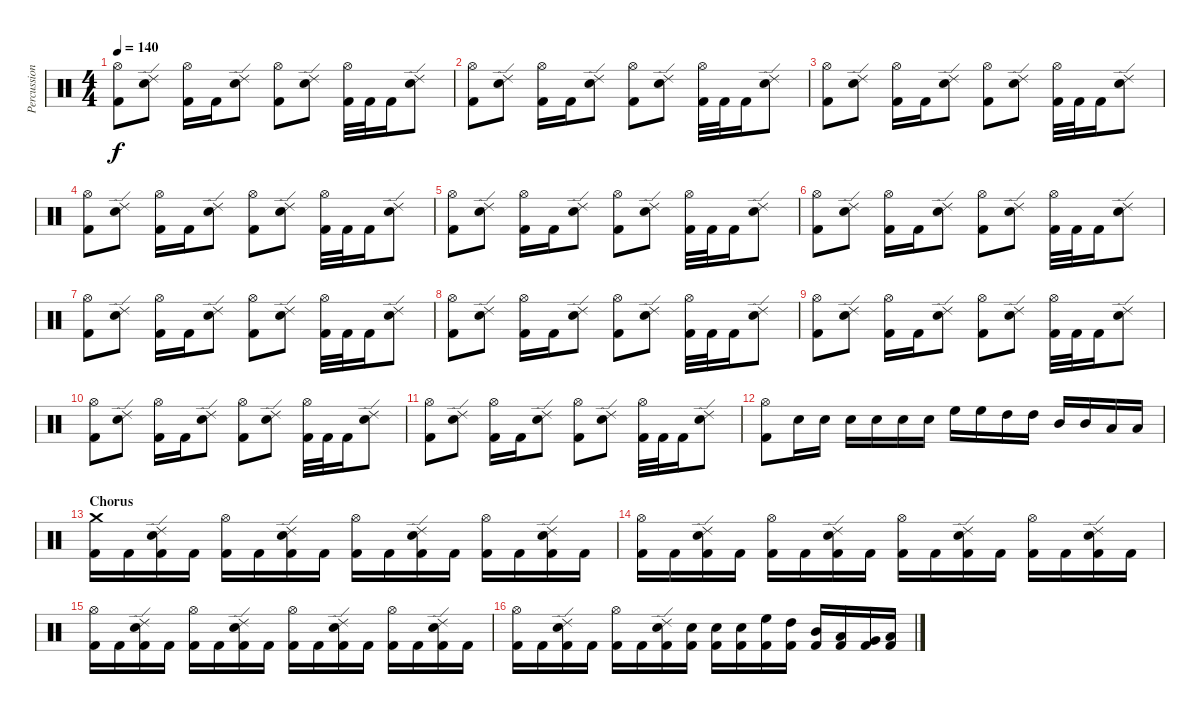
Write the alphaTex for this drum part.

\track ("Percussion" "Percussion") {instrument percussion}
\staff {score}
\articulation defaults
\ts (4 4)
\tempo 140
\clef neutral
\ks c
("Hi-Hat (open)" "Kick (hit) 2").8{dy f} ("Ride (edge) 2" "Electric Snare (hit)").8 ("Hi-Hat (open)" "Kick (hit) 2").16 "Kick (hit) 2".16 ("Ride (edge) 2" "Electric Snare (hit)").8 ("Hi-Hat (open)" "Kick (hit) 2").8 ("Ride (edge) 2" "Electric Snare (hit)").8 ("Hi-Hat (open)" "Kick (hit) 2").32 "Kick (hit) 2".32 "Kick (hit) 2".16 ("Ride (edge) 2" "Electric Snare (hit)").8 |
("Hi-Hat (open)" "Kick (hit) 2").8 ("Ride (edge) 2" "Electric Snare (hit)").8 ("Hi-Hat (open)" "Kick (hit) 2").16 "Kick (hit) 2".16 ("Ride (edge) 2" "Electric Snare (hit)").8 ("Hi-Hat (open)" "Kick (hit) 2").8 ("Ride (edge) 2" "Electric Snare (hit)").8 ("Hi-Hat (open)" "Kick (hit) 2").32 "Kick (hit) 2".32 "Kick (hit) 2".16 ("Ride (edge) 2" "Electric Snare (hit)").8 |
("Hi-Hat (open)" "Kick (hit) 2").8 ("Ride (edge) 2" "Electric Snare (hit)").8 ("Hi-Hat (open)" "Kick (hit) 2").16 "Kick (hit) 2".16 ("Ride (edge) 2" "Electric Snare (hit)").8 ("Hi-Hat (open)" "Kick (hit) 2").8 ("Ride (edge) 2" "Electric Snare (hit)").8 ("Hi-Hat (open)" "Kick (hit) 2").32 "Kick (hit) 2".32 "Kick (hit) 2".16 ("Ride (edge) 2" "Electric Snare (hit)").8 |
("Hi-Hat (open)" "Kick (hit) 2").8 ("Ride (edge) 2" "Electric Snare (hit)").8 ("Hi-Hat (open)" "Kick (hit) 2").16 "Kick (hit) 2".16 ("Ride (edge) 2" "Electric Snare (hit)").8 ("Hi-Hat (open)" "Kick (hit) 2").8 ("Ride (edge) 2" "Electric Snare (hit)").8 ("Hi-Hat (open)" "Kick (hit) 2").32 "Kick (hit) 2".32 "Kick (hit) 2".16 ("Ride (edge) 2" "Electric Snare (hit)").8 |
("Hi-Hat (open)" "Kick (hit) 2").8 ("Ride (edge) 2" "Electric Snare (hit)").8 ("Hi-Hat (open)" "Kick (hit) 2").16 "Kick (hit) 2".16 ("Ride (edge) 2" "Electric Snare (hit)").8 ("Hi-Hat (open)" "Kick (hit) 2").8 ("Ride (edge) 2" "Electric Snare (hit)").8 ("Hi-Hat (open)" "Kick (hit) 2").32 "Kick (hit) 2".32 "Kick (hit) 2".16 ("Ride (edge) 2" "Electric Snare (hit)").8 |
("Hi-Hat (open)" "Kick (hit) 2").8 ("Ride (edge) 2" "Electric Snare (hit)").8 ("Hi-Hat (open)" "Kick (hit) 2").16 "Kick (hit) 2".16 ("Ride (edge) 2" "Electric Snare (hit)").8 ("Hi-Hat (open)" "Kick (hit) 2").8 ("Ride (edge) 2" "Electric Snare (hit)").8 ("Hi-Hat (open)" "Kick (hit) 2").32 "Kick (hit) 2".32 "Kick (hit) 2".16 ("Ride (edge) 2" "Electric Snare (hit)").8 |
("Hi-Hat (open)" "Kick (hit) 2").8 ("Ride (edge) 2" "Electric Snare (hit)").8 ("Hi-Hat (open)" "Kick (hit) 2").16 "Kick (hit) 2".16 ("Ride (edge) 2" "Electric Snare (hit)").8 ("Hi-Hat (open)" "Kick (hit) 2").8 ("Ride (edge) 2" "Electric Snare (hit)").8 ("Hi-Hat (open)" "Kick (hit) 2").32 "Kick (hit) 2".32 "Kick (hit) 2".16 ("Ride (edge) 2" "Electric Snare (hit)").8 |
("Hi-Hat (open)" "Kick (hit) 2").8 ("Ride (edge) 2" "Electric Snare (hit)").8 ("Hi-Hat (open)" "Kick (hit) 2").16 "Kick (hit) 2".16 ("Ride (edge) 2" "Electric Snare (hit)").8 ("Hi-Hat (open)" "Kick (hit) 2").8 ("Ride (edge) 2" "Electric Snare (hit)").8 ("Hi-Hat (open)" "Kick (hit) 2").32 "Kick (hit) 2".32 "Kick (hit) 2".16 ("Ride (edge) 2" "Electric Snare (hit)").8 |
("Hi-Hat (open)" "Kick (hit) 2").8 ("Ride (edge) 2" "Electric Snare (hit)").8 ("Hi-Hat (open)" "Kick (hit) 2").16 "Kick (hit) 2".16 ("Ride (edge) 2" "Electric Snare (hit)").8 ("Hi-Hat (open)" "Kick (hit) 2").8 ("Ride (edge) 2" "Electric Snare (hit)").8 ("Hi-Hat (open)" "Kick (hit) 2").32 "Kick (hit) 2".32 "Kick (hit) 2".16 ("Ride (edge) 2" "Electric Snare (hit)").8 |
("Hi-Hat (open)" "Kick (hit) 2").8 ("Ride (edge) 2" "Electric Snare (hit)").8 ("Hi-Hat (open)" "Kick (hit) 2").16 "Kick (hit) 2".16 ("Ride (edge) 2" "Electric Snare (hit)").8 ("Hi-Hat (open)" "Kick (hit) 2").8 ("Ride (edge) 2" "Electric Snare (hit)").8 ("Hi-Hat (open)" "Kick (hit) 2").32 "Kick (hit) 2".32 "Kick (hit) 2".16 ("Ride (edge) 2" "Electric Snare (hit)").8 |
("Hi-Hat (open)" "Kick (hit) 2").8 ("Ride (edge) 2" "Electric Snare (hit)").8 ("Hi-Hat (open)" "Kick (hit) 2").16 "Kick (hit) 2".16 ("Ride (edge) 2" "Electric Snare (hit)").8 ("Hi-Hat (open)" "Kick (hit) 2").8 ("Ride (edge) 2" "Electric Snare (hit)").8 ("Hi-Hat (open)" "Kick (hit) 2").32 "Kick (hit) 2".32 "Kick (hit) 2".16 ("Ride (edge) 2" "Electric Snare (hit)").8 |
("Hi-Hat (open)" "Kick (hit) 2").8 "Electric Snare (hit)".16 "Electric Snare (hit)".16 "Electric Snare (hit)".16 "Electric Snare (hit)".16 "Electric Snare (hit)".16 "Electric Snare (hit)".16 "High Floor Tom (hit)".16 "High Floor Tom (hit)".16 "High Tom (hit)".16 "High Tom (hit)".16 "Mid Tom (hit)".16 "Mid Tom (hit)".16 "Low Tom (hit)".16 "Low Tom (hit)".16 |
\section ("" "Chorus")
("Crash medium (hit)" "Kick (hit) 2").16 "Kick (hit) 2".16 ("Ride (edge) 2" "Electric Snare (hit)" "Kick (hit) 2").16 "Kick (hit) 2".16 ("Hi-Hat (open)" "Kick (hit) 2").16 "Kick (hit) 2".16 ("Ride (edge) 2" "Electric Snare (hit)" "Kick (hit) 2").16 "Kick (hit) 2".16 ("Hi-Hat (open)" "Kick (hit) 2").16 "Kick (hit) 2".16 ("Ride (edge) 2" "Electric Snare (hit)" "Kick (hit) 2").16 "Kick (hit) 2".16 ("Hi-Hat (open)" "Kick (hit) 2").16 "Kick (hit) 2".16 ("Ride (edge) 2" "Electric Snare (hit)" "Kick (hit) 2").16 "Kick (hit) 2".16 |
("Hi-Hat (open)" "Kick (hit) 2").16 "Kick (hit) 2".16 ("Ride (edge) 2" "Electric Snare (hit)" "Kick (hit) 2").16 "Kick (hit) 2".16 ("Hi-Hat (open)" "Kick (hit) 2").16 "Kick (hit) 2".16 ("Ride (edge) 2" "Electric Snare (hit)" "Kick (hit) 2").16 "Kick (hit) 2".16 ("Hi-Hat (open)" "Kick (hit) 2").16 "Kick (hit) 2".16 ("Ride (edge) 2" "Electric Snare (hit)" "Kick (hit) 2").16 "Kick (hit) 2".16 ("Hi-Hat (open)" "Kick (hit) 2").16 "Kick (hit) 2".16 ("Ride (edge) 2" "Electric Snare (hit)" "Kick (hit) 2").16 "Kick (hit) 2".16 |
("Hi-Hat (open)" "Kick (hit) 2").16 "Kick (hit) 2".16 ("Ride (edge) 2" "Electric Snare (hit)" "Kick (hit) 2").16 "Kick (hit) 2".16 ("Hi-Hat (open)" "Kick (hit) 2").16 "Kick (hit) 2".16 ("Ride (edge) 2" "Electric Snare (hit)" "Kick (hit) 2").16 "Kick (hit) 2".16 ("Hi-Hat (open)" "Kick (hit) 2").16 "Kick (hit) 2".16 ("Ride (edge) 2" "Electric Snare (hit)" "Kick (hit) 2").16 "Kick (hit) 2".16 ("Hi-Hat (open)" "Kick (hit) 2").16 "Kick (hit) 2".16 ("Ride (edge) 2" "Electric Snare (hit)" "Kick (hit) 2").16 "Kick (hit) 2".16 |
("Hi-Hat (open)" "Kick (hit) 2").16 "Kick (hit) 2".16 ("Ride (edge) 2" "Electric Snare (hit)" "Kick (hit) 2").16 "Kick (hit) 2".16 ("Hi-Hat (open)" "Kick (hit) 2").16 "Kick (hit) 2".16 ("Ride (edge) 2" "Electric Snare (hit)" "Kick (hit) 2").16 ("Electric Snare (hit)" "Kick (hit) 2").16 ("Electric Snare (hit)" "Kick (hit) 2").16 ("Electric Snare (hit)" "Kick (hit) 2").16 ("High Floor Tom (hit)" "Kick (hit) 2").16 ("High Tom (hit)" "Kick (hit) 2").16 ("Mid Tom (hit)" "Kick (hit) 2").16 ("Low Tom (hit)" "Kick (hit) 2").16 ("Very Low Tom (hit)" "Kick (hit) 2").16 ("Low Floor Tom (hit)" "Kick (hit) 2").16
